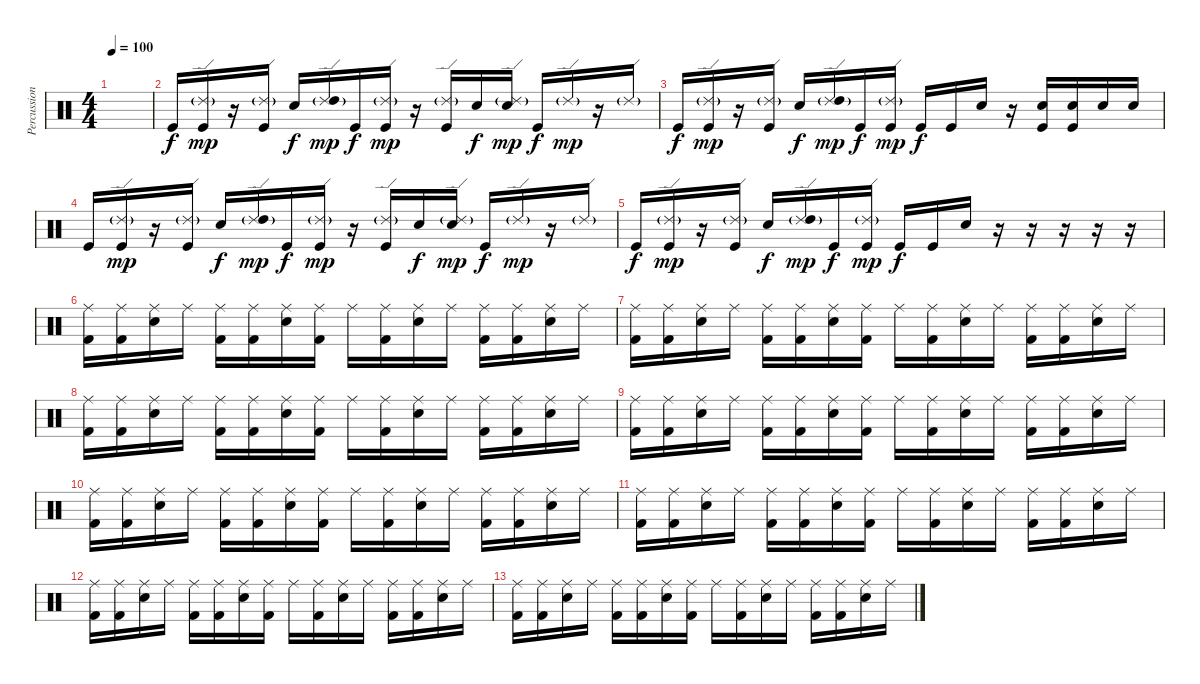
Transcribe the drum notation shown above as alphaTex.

\track ("Percussions" "Percussion") {instrument percussion}
\staff {score}
\articulation defaults
\ts (4 4)
\tempo 100
\clef neutral
\ks c
|
"Kick (hit)".16 ("Ride (edge) 2"{g} "Kick (hit)").16{dy mp} r.16 ("Ride (edge) 2"{g} "Kick (hit)").16 "Snare (hit) 2".16{dy f} ("Ride (edge) 2"{g} "High Tom (hit)").16{dy mp} "Kick (hit)".16{dy f} ("Ride (edge) 2"{g} "Kick (hit)").16{dy mp} r.16 ("Ride (edge) 2"{g} "Kick (hit)").16 "Snare (hit) 2".16{dy f} ("Ride (edge) 2"{g} "Snare (hit) 2").16{dy mp} "Kick (hit)".16{dy f} "Ride (edge) 2"{g}.16{dy mp} r.16 "Ride (edge) 2"{g}.16 |
"Kick (hit)".16{dy f} ("Ride (edge) 2"{g} "Kick (hit)").16{dy mp} r.16 ("Ride (edge) 2"{g} "Kick (hit)").16 "Snare (hit) 2".16{dy f} ("Ride (edge) 2"{g} "High Tom (hit)").16{dy mp} "Kick (hit)".16{dy f} ("Ride (edge) 2"{g} "Kick (hit)").16{dy mp} "Kick (hit)".16{dy f} "Kick (hit)".16 "Snare (hit) 2".16 r.16 ("Electric Snare (hit)" "Kick (hit)").16 ("Electric Snare (hit)" "Kick (hit)").16 "Electric Snare (hit)".16 "Electric Snare (hit)".16 |
"Kick (hit)".16{volume 16} ("Ride (edge) 2"{g} "Kick (hit)").16{dy mp} r.16 ("Ride (edge) 2"{g} "Kick (hit)").16 "Snare (hit) 2".16{dy f} ("Ride (edge) 2"{g} "High Tom (hit)").16{dy mp} "Kick (hit)".16{dy f} ("Ride (edge) 2"{g} "Kick (hit)").16{dy mp} r.16 ("Ride (edge) 2"{g} "Kick (hit)").16 "Snare (hit) 2".16{dy f} ("Ride (edge) 2"{g} "Snare (hit) 2").16{dy mp} "Kick (hit)".16{dy f} "Ride (edge) 2"{g}.16{dy mp} r.16 "Ride (edge) 2"{g}.16 |
"Kick (hit)".16{dy f} ("Ride (edge) 2"{g} "Kick (hit)").16{dy mp} r.16 ("Ride (edge) 2"{g} "Kick (hit)").16 "Snare (hit) 2".16{dy f} ("Ride (edge) 2"{g} "High Tom (hit)").16{dy mp} "Kick (hit)".16{dy f} ("Ride (edge) 2"{g} "Kick (hit)").16{dy mp} "Kick (hit)".16{dy f} "Kick (hit)".16 "Snare (hit) 2".16 r.16 r.16 r.16 r.16 r.16 |
("Ride (middle)" "Kick (hit) 2").16 ("Ride (middle)" "Kick (hit) 2").16 ("Ride (middle)" "Electric Snare (hit)").16 "Ride (middle)".16 ("Ride (middle)" "Kick (hit) 2").16 ("Ride (middle)" "Kick (hit) 2").16 ("Ride (middle)" "Electric Snare (hit)").16 ("Ride (middle)" "Kick (hit) 2").16 "Ride (middle)".16 ("Ride (middle)" "Kick (hit) 2").16 ("Ride (middle)" "Electric Snare (hit)").16 "Ride (middle)".16 ("Ride (middle)" "Kick (hit) 2").16 ("Ride (middle)" "Kick (hit) 2").16 ("Ride (middle)" "Electric Snare (hit)").16 "Ride (middle)".16 |
("Ride (middle)" "Kick (hit) 2").16 ("Ride (middle)" "Kick (hit) 2").16 ("Ride (middle)" "Electric Snare (hit)").16 "Ride (middle)".16 ("Ride (middle)" "Kick (hit) 2").16 ("Ride (middle)" "Kick (hit) 2").16 ("Ride (middle)" "Electric Snare (hit)").16 ("Ride (middle)" "Kick (hit) 2").16 "Ride (middle)".16 ("Ride (middle)" "Kick (hit) 2").16 ("Ride (middle)" "Electric Snare (hit)").16 "Ride (middle)".16 ("Ride (middle)" "Kick (hit) 2").16 ("Ride (middle)" "Kick (hit) 2").16 ("Ride (middle)" "Electric Snare (hit)").16 "Ride (middle)".16 |
("Ride (middle)" "Kick (hit) 2").16 ("Ride (middle)" "Kick (hit) 2").16 ("Ride (middle)" "Electric Snare (hit)").16 "Ride (middle)".16 ("Ride (middle)" "Kick (hit) 2").16 ("Ride (middle)" "Kick (hit) 2").16 ("Ride (middle)" "Electric Snare (hit)").16 ("Ride (middle)" "Kick (hit) 2").16 "Ride (middle)".16 ("Ride (middle)" "Kick (hit) 2").16 ("Ride (middle)" "Electric Snare (hit)").16 "Ride (middle)".16 ("Ride (middle)" "Kick (hit) 2").16 ("Ride (middle)" "Kick (hit) 2").16 ("Ride (middle)" "Electric Snare (hit)").16 "Ride (middle)".16 |
("Ride (middle)" "Kick (hit) 2").16 ("Ride (middle)" "Kick (hit) 2").16 ("Ride (middle)" "Electric Snare (hit)").16 "Ride (middle)".16 ("Ride (middle)" "Kick (hit) 2").16 ("Ride (middle)" "Kick (hit) 2").16 ("Ride (middle)" "Electric Snare (hit)").16 ("Ride (middle)" "Kick (hit) 2").16 "Ride (middle)".16 ("Ride (middle)" "Kick (hit) 2").16 ("Ride (middle)" "Electric Snare (hit)").16 "Ride (middle)".16 ("Ride (middle)" "Kick (hit) 2").16 ("Ride (middle)" "Kick (hit) 2").16 ("Ride (middle)" "Electric Snare (hit)").16 "Ride (middle)".16 |
("Ride (middle)" "Kick (hit) 2").16 ("Ride (middle)" "Kick (hit) 2").16 ("Ride (middle)" "Electric Snare (hit)").16 "Ride (middle)".16 ("Ride (middle)" "Kick (hit) 2").16 ("Ride (middle)" "Kick (hit) 2").16 ("Ride (middle)" "Electric Snare (hit)").16 ("Ride (middle)" "Kick (hit) 2").16 "Ride (middle)".16 ("Ride (middle)" "Kick (hit) 2").16 ("Ride (middle)" "Electric Snare (hit)").16 "Ride (middle)".16 ("Ride (middle)" "Kick (hit) 2").16 ("Ride (middle)" "Kick (hit) 2").16 ("Ride (middle)" "Electric Snare (hit)").16 "Ride (middle)".16 |
("Ride (middle)" "Kick (hit) 2").16 ("Ride (middle)" "Kick (hit) 2").16 ("Ride (middle)" "Electric Snare (hit)").16 "Ride (middle)".16 ("Ride (middle)" "Kick (hit) 2").16 ("Ride (middle)" "Kick (hit) 2").16 ("Ride (middle)" "Electric Snare (hit)").16 ("Ride (middle)" "Kick (hit) 2").16 "Ride (middle)".16 ("Ride (middle)" "Kick (hit) 2").16 ("Ride (middle)" "Electric Snare (hit)").16 "Ride (middle)".16 ("Ride (middle)" "Kick (hit) 2").16 ("Ride (middle)" "Kick (hit) 2").16 ("Ride (middle)" "Electric Snare (hit)").16 "Ride (middle)".16 |
("Ride (middle)" "Kick (hit) 2").16 ("Ride (middle)" "Kick (hit) 2").16 ("Ride (middle)" "Electric Snare (hit)").16 "Ride (middle)".16 ("Ride (middle)" "Kick (hit) 2").16 ("Ride (middle)" "Kick (hit) 2").16 ("Ride (middle)" "Electric Snare (hit)").16 ("Ride (middle)" "Kick (hit) 2").16 "Ride (middle)".16 ("Ride (middle)" "Kick (hit) 2").16 ("Ride (middle)" "Electric Snare (hit)").16 "Ride (middle)".16 ("Ride (middle)" "Kick (hit) 2").16 ("Ride (middle)" "Kick (hit) 2").16 ("Ride (middle)" "Electric Snare (hit)").16 "Ride (middle)".16 |
("Ride (middle)" "Kick (hit) 2").16 ("Ride (middle)" "Kick (hit) 2").16 ("Ride (middle)" "Electric Snare (hit)").16 "Ride (middle)".16 ("Ride (middle)" "Kick (hit) 2").16 ("Ride (middle)" "Kick (hit) 2").16 ("Ride (middle)" "Electric Snare (hit)").16 ("Ride (middle)" "Kick (hit) 2").16 "Ride (middle)".16 ("Ride (middle)" "Kick (hit) 2").16 ("Ride (middle)" "Electric Snare (hit)").16 "Ride (middle)".16 ("Ride (middle)" "Kick (hit) 2").16 ("Ride (middle)" "Kick (hit) 2").16 ("Ride (middle)" "Electric Snare (hit)").16 "Ride (middle)".16
